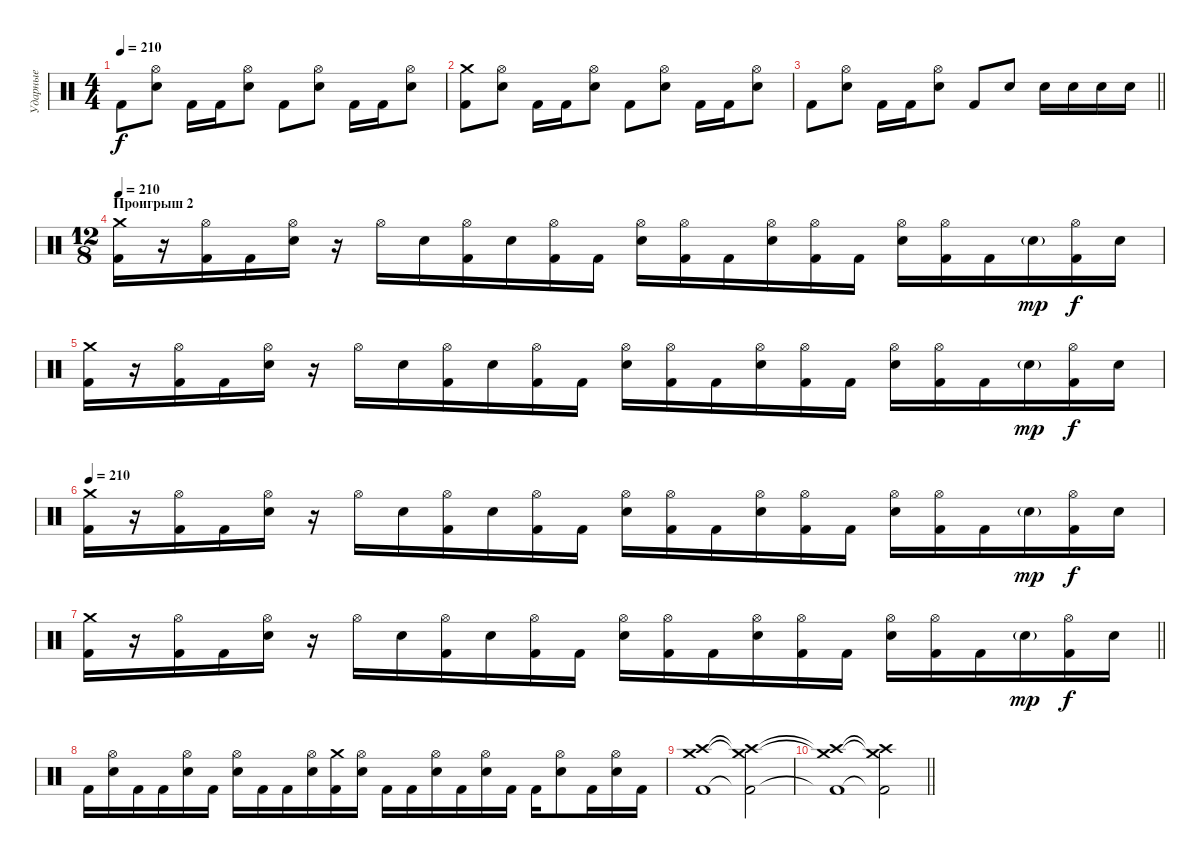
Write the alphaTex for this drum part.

\track ("Ударные" "Ударные") {instrument percussion}
\staff {score}
\articulation defaults
\ts (4 4)
\tempo 210
\clef neutral
\ks c "Kick (hit) 2".8{dy f}
("Electric Snare (hit)" "Hi-Hat (open)").8 "Kick (hit) 2".16 "Kick (hit) 2".16 ("Electric Snare (hit)" "Hi-Hat (open)").8 "Kick (hit) 2".8 ("Electric Snare (hit)" "Hi-Hat (open)").8 "Kick (hit) 2".16 "Kick (hit) 2".16 ("Electric Snare (hit)" "Hi-Hat (open)").8 |
("Kick (hit) 2" "Crash medium (hit)").8 ("Electric Snare (hit)" "Hi-Hat (open)").8 "Kick (hit) 2".16 "Kick (hit) 2".16 ("Electric Snare (hit)" "Hi-Hat (open)").8 "Kick (hit) 2".8 ("Electric Snare (hit)" "Hi-Hat (open)").8 "Kick (hit) 2".16 "Kick (hit) 2".16 ("Electric Snare (hit)" "Hi-Hat (open)").8 |
\barLineRight lightlight "Kick (hit) 2".8
("Electric Snare (hit)" "Hi-Hat (open)").8 "Kick (hit) 2".16 "Kick (hit) 2".16 ("Electric Snare (hit)" "Hi-Hat (open)").8 "Kick (hit) 2".8 "Electric Snare (hit)".8 "Electric Snare (hit)".16 "Electric Snare (hit)".16 "Electric Snare (hit)".16 "Electric Snare (hit)".16 |
\ts (12 8)
\section ("" "Проигрыш 2")
\tempo 210
("Kick (hit) 2" "Crash medium (hit)").16 r.16 ("Kick (hit) 2" "Hi-Hat (open)").16 "Kick (hit) 2".16 ("Electric Snare (hit)" "Hi-Hat (open)").16 r.16 "Hi-Hat (open)".16 "Electric Snare (hit)".16 ("Kick (hit) 2" "Hi-Hat (open)").16 "Electric Snare (hit)".16 ("Kick (hit) 2" "Hi-Hat (open)").16 "Kick (hit) 2".16 ("Electric Snare (hit)" "Hi-Hat (open)").16 ("Kick (hit) 2" "Hi-Hat (open)").16 "Kick (hit) 2".16 ("Electric Snare (hit)" "Hi-Hat (open)").16 ("Kick (hit) 2" "Hi-Hat (open)").16 "Kick (hit) 2".16 ("Electric Snare (hit)" "Hi-Hat (open)").16 ("Kick (hit) 2" "Hi-Hat (open)").16 "Kick (hit) 2".16 "Electric Snare (hit)"{g}.16{dy mp} ("Kick (hit) 2" "Hi-Hat (open)").16{dy f} "Electric Snare (hit)".16 |
("Kick (hit) 2" "Crash medium (hit)").16 r.16 ("Kick (hit) 2" "Hi-Hat (open)").16 "Kick (hit) 2".16 ("Electric Snare (hit)" "Hi-Hat (open)").16 r.16 "Hi-Hat (open)".16 "Electric Snare (hit)".16 ("Kick (hit) 2" "Hi-Hat (open)").16 "Electric Snare (hit)".16 ("Kick (hit) 2" "Hi-Hat (open)").16 "Kick (hit) 2".16 ("Electric Snare (hit)" "Hi-Hat (open)").16 ("Kick (hit) 2" "Hi-Hat (open)").16 "Kick (hit) 2".16 ("Electric Snare (hit)" "Hi-Hat (open)").16 ("Kick (hit) 2" "Hi-Hat (open)").16 "Kick (hit) 2".16 ("Electric Snare (hit)" "Hi-Hat (open)").16 ("Kick (hit) 2" "Hi-Hat (open)").16 "Kick (hit) 2".16 "Electric Snare (hit)"{g}.16{dy mp} ("Kick (hit) 2" "Hi-Hat (open)").16{dy f} "Electric Snare (hit)".16 |
\tempo 210
("Kick (hit) 2" "Crash medium (hit)").16 r.16 ("Kick (hit) 2" "Hi-Hat (open)").16 "Kick (hit) 2".16 ("Electric Snare (hit)" "Hi-Hat (open)").16 r.16 "Hi-Hat (open)".16 "Electric Snare (hit)".16 ("Kick (hit) 2" "Hi-Hat (open)").16 "Electric Snare (hit)".16 ("Kick (hit) 2" "Hi-Hat (open)").16 "Kick (hit) 2".16 ("Electric Snare (hit)" "Hi-Hat (open)").16 ("Kick (hit) 2" "Hi-Hat (open)").16 "Kick (hit) 2".16 ("Electric Snare (hit)" "Hi-Hat (open)").16 ("Kick (hit) 2" "Hi-Hat (open)").16 "Kick (hit) 2".16 ("Electric Snare (hit)" "Hi-Hat (open)").16 ("Kick (hit) 2" "Hi-Hat (open)").16 "Kick (hit) 2".16 "Electric Snare (hit)"{g}.16{dy mp} ("Kick (hit) 2" "Hi-Hat (open)").16{dy f} "Electric Snare (hit)".16 |
\barLineRight lightlight
("Kick (hit) 2" "Crash medium (hit)").16 r.16 ("Kick (hit) 2" "Hi-Hat (open)").16 "Kick (hit) 2".16 ("Electric Snare (hit)" "Hi-Hat (open)").16 r.16 "Hi-Hat (open)".16 "Electric Snare (hit)".16 ("Kick (hit) 2" "Hi-Hat (open)").16 "Electric Snare (hit)".16 ("Kick (hit) 2" "Hi-Hat (open)").16 "Kick (hit) 2".16 ("Electric Snare (hit)" "Hi-Hat (open)").16 ("Kick (hit) 2" "Hi-Hat (open)").16 "Kick (hit) 2".16 ("Electric Snare (hit)" "Hi-Hat (open)").16 ("Kick (hit) 2" "Hi-Hat (open)").16 "Kick (hit) 2".16 ("Electric Snare (hit)" "Hi-Hat (open)").16 ("Kick (hit) 2" "Hi-Hat (open)").16 "Kick (hit) 2".16 "Electric Snare (hit)"{g}.16{dy mp} ("Kick (hit) 2" "Hi-Hat (open)").16{dy f} "Electric Snare (hit)".16 |
"Kick (hit) 2".16 ("Electric Snare (hit)" "Hi-Hat (open)").16 "Kick (hit) 2".16 "Kick (hit) 2".16 ("Electric Snare (hit)" "Hi-Hat (open)").16 "Kick (hit) 2".16 ("Electric Snare (hit)" "Hi-Hat (open)").16 "Kick (hit) 2".16 "Kick (hit) 2".16 ("Electric Snare (hit)" "Hi-Hat (open)").16 ("Kick (hit) 2" "Crash medium (hit)").16 ("Electric Snare (hit)" "Hi-Hat (open)").16 "Kick (hit) 2".16 "Kick (hit) 2".16 ("Electric Snare (hit)" "Hi-Hat (open)").16 "Kick (hit) 2".16 ("Electric Snare (hit)" "Hi-Hat (open)").16 "Kick (hit) 2".16 "Kick (hit) 2".16 ("Electric Snare (hit)" "Hi-Hat (open)").8 "Kick (hit) 2".16 ("Electric Snare (hit)" "Hi-Hat (open)").16 "Kick (hit) 2".16 |
("Kick (hit) 2" "Crash medium (hit)" "Crash high (hit)").1 ("Kick (hit) 2"{t} "Crash medium (hit)"{t} "Crash high (hit)"{t}).2 |
\barLineRight lightlight
("Kick (hit) 2"{t} "Crash medium (hit)"{t} "Crash high (hit)"{t}).1 ("Kick (hit) 2"{t} "Crash medium (hit)"{t} "Crash high (hit)"{t}).2
